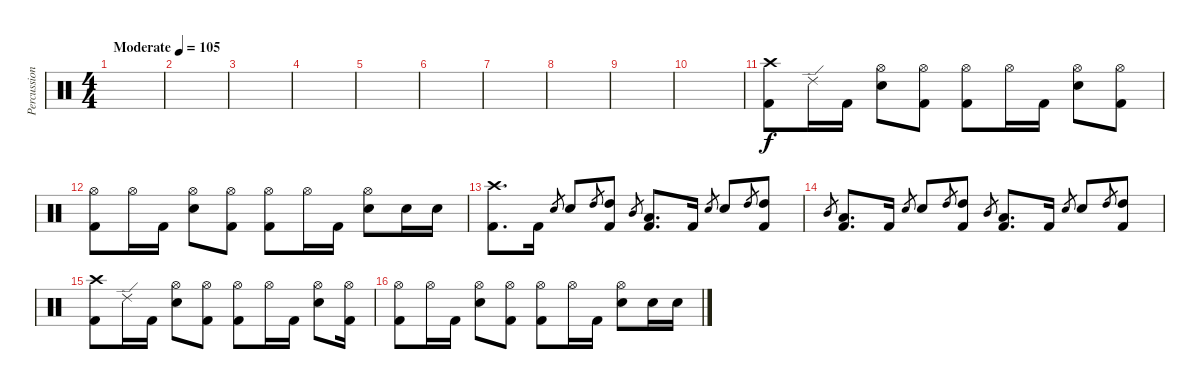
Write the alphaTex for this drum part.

\track ("Percussion" "Percussion") {instrument percussion}
\staff {score}
\articulation defaults
\ts (4 4)
\tempo (105 "Moderate")
\clef neutral
\ks c
|
|
|
|
|
|
|
|
|
|
("Crash high (hit)" "Kick (hit) 2").8 "Ride (edge) 2".16 "Kick (hit) 2".16 ("Hi-Hat (open)" "Electric Snare (hit)").8 ("Hi-Hat (open)" "Kick (hit) 2").8 ("Hi-Hat (open)" "Kick (hit) 2").8 "Hi-Hat (open)".16 "Kick (hit) 2".16 ("Hi-Hat (open)" "Electric Snare (hit)").8 ("Hi-Hat (open)" "Kick (hit) 2").8 |
("Hi-Hat (open)" "Kick (hit) 2").8 "Hi-Hat (open)".16 "Kick (hit) 2".16 ("Hi-Hat (open)" "Electric Snare (hit)").8 ("Hi-Hat (open)" "Kick (hit) 2").8 ("Hi-Hat (open)" "Kick (hit) 2").8 "Hi-Hat (open)".16 "Kick (hit) 2".16 ("Hi-Hat (open)" "Electric Snare (hit)").8 "Electric Snare (hit)".16 "Electric Snare (hit)".16 |
("Crash high (hit)" "Kick (hit) 2").8{d} "Kick (hit) 2".16 "Electric Snare (hit)".8{gr} "Electric Snare (hit)".8 "High Tom (hit)".8{gr} ("High Tom (hit)" "Kick (hit) 2").8 "Mid Tom (hit)".8{gr} ("Low Tom (hit)" "Kick (hit) 2").8{d} "Kick (hit) 2".16 "Electric Snare (hit)".8{gr} "Electric Snare (hit)".8 "High Tom (hit)".8{gr} ("High Tom (hit)" "Kick (hit) 2").8 |
"Mid Tom (hit)".8{gr} ("Low Tom (hit)" "Kick (hit) 2").8{d} "Kick (hit) 2".16 "Electric Snare (hit)".8{gr} "Electric Snare (hit)".8 "High Tom (hit)".8{gr} ("High Tom (hit)" "Kick (hit) 2").8 "Mid Tom (hit)".8{gr} ("Low Tom (hit)" "Kick (hit) 2").8{d} "Kick (hit) 2".16 "Electric Snare (hit)".8{gr} "Electric Snare (hit)".8 "High Tom (hit)".8{gr} ("High Tom (hit)" "Kick (hit) 2").8 |
("Crash high (hit)" "Kick (hit) 2").8 "Ride (edge) 2".16 "Kick (hit) 2".16 ("Hi-Hat (open)" "Electric Snare (hit)").8 ("Hi-Hat (open)" "Kick (hit) 2").8 ("Hi-Hat (open)" "Kick (hit) 2").8 "Hi-Hat (open)".16 "Kick (hit) 2".16 ("Hi-Hat (open)" "Electric Snare (hit)").8 ("Hi-Hat (open)" "Kick (hit) 2").16 |
("Hi-Hat (open)" "Kick (hit) 2").8 "Hi-Hat (open)".16 "Kick (hit) 2".16 ("Hi-Hat (open)" "Electric Snare (hit)").8 ("Hi-Hat (open)" "Kick (hit) 2").8 ("Hi-Hat (open)" "Kick (hit) 2").8 "Hi-Hat (open)".16 "Kick (hit) 2".16 ("Hi-Hat (open)" "Electric Snare (hit)").8 "Electric Snare (hit)".16 "Electric Snare (hit)".16
